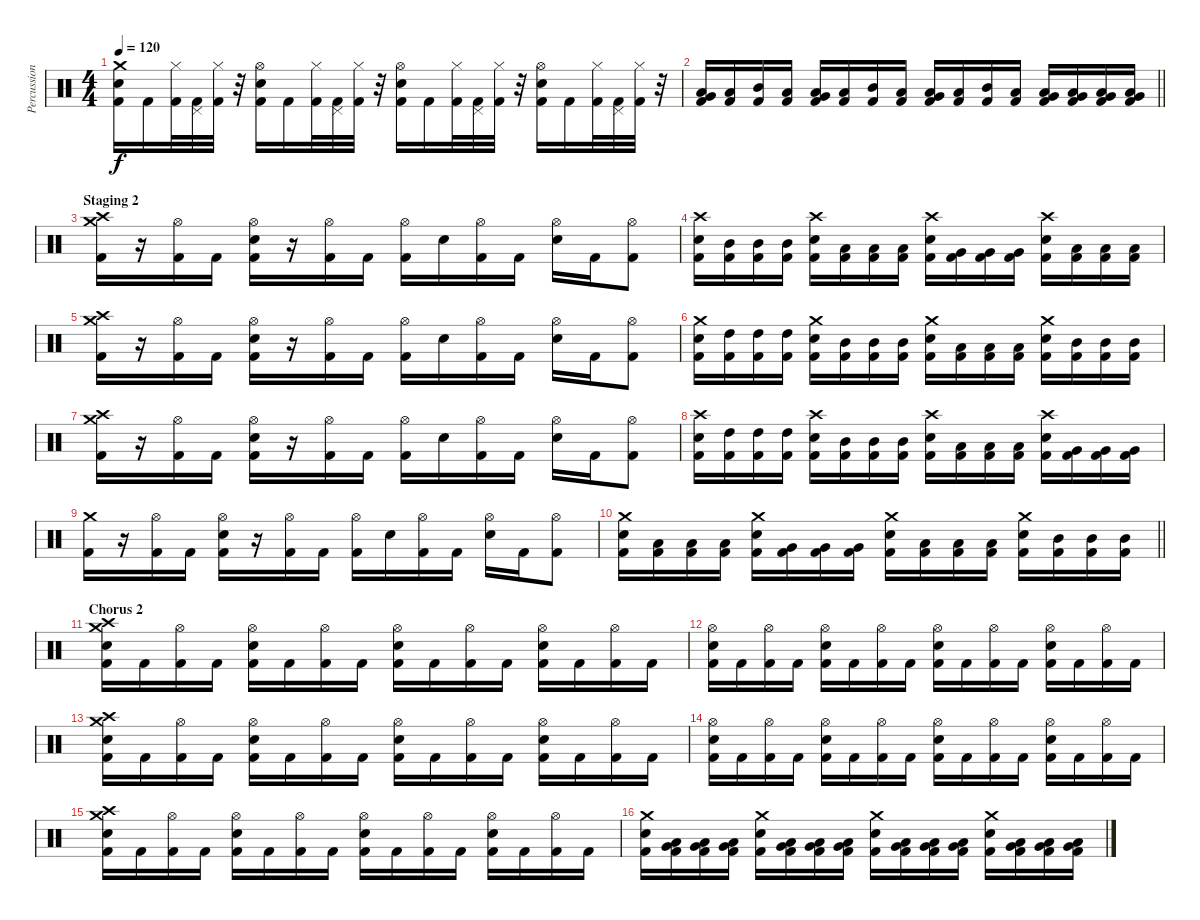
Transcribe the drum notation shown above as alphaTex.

\track ("Percussion" "Percussion") {instrument percussion}
\staff {score}
\articulation defaults
\ts (4 4)
\tempo 120
\clef neutral
\ks c
("Crash medium (hit)" "Electric Snare (hit)" "Kick (hit) 2").16{dy f} "Kick (hit) 2".16 ("Hi-Hat (closed)" "Kick (hit) 2").32 ("Pedal Hi-Hat (hit)" "Kick (hit) 2").32 ("Hi-Hat (closed)" "Kick (hit) 2").32 r.32 ("Hi-Hat (open)" "Electric Snare (hit)" "Kick (hit) 2").16 "Kick (hit) 2".16 ("Hi-Hat (closed)" "Kick (hit) 2").32 ("Pedal Hi-Hat (hit)" "Kick (hit) 2").32 ("Hi-Hat (closed)" "Kick (hit) 2").32 r.32 ("Hi-Hat (open)" "Electric Snare (hit)" "Kick (hit) 2").16 "Kick (hit) 2".16 ("Hi-Hat (closed)" "Kick (hit) 2").32 ("Pedal Hi-Hat (hit)" "Kick (hit) 2").32 ("Hi-Hat (closed)" "Kick (hit) 2").32 r.32 ("Hi-Hat (open)" "Electric Snare (hit)" "Kick (hit) 2").16 "Kick (hit) 2".16 ("Hi-Hat (closed)" "Kick (hit) 2").32 ("Pedal Hi-Hat (hit)" "Kick (hit) 2").32 ("Hi-Hat (closed)" "Kick (hit) 2").32 r.32 |
\barLineRight lightlight
("Very Low Tom (hit)" "Low Floor Tom (hit)" "Kick (hit) 2").16 ("Low Tom (hit)" "Kick (hit) 2").16 ("Mid Tom (hit)" "Kick (hit) 2").16 ("Low Tom (hit)" "Kick (hit) 2").16 ("Very Low Tom (hit)" "Low Floor Tom (hit)" "Kick (hit) 2").16 ("Low Tom (hit)" "Kick (hit) 2").16 ("Mid Tom (hit)" "Kick (hit) 2").16 ("Low Tom (hit)" "Kick (hit) 2").16 ("Very Low Tom (hit)" "Low Floor Tom (hit)" "Kick (hit) 2").16 ("Low Tom (hit)" "Kick (hit) 2").16 ("Mid Tom (hit)" "Kick (hit) 2").16 ("Low Tom (hit)" "Kick (hit) 2").16 ("Very Low Tom (hit)" "Low Floor Tom (hit)" "Kick (hit) 2").16 ("Very Low Tom (hit)" "Low Floor Tom (hit)" "Kick (hit) 2").16 ("Very Low Tom (hit)" "Low Floor Tom (hit)" "Kick (hit) 2").16 ("Very Low Tom (hit)" "Low Floor Tom (hit)" "Kick (hit) 2").16 |
\section ("" "Staging 2")
("Crash high (hit)" "Crash medium (hit)" "Kick (hit) 2").16 r.16 ("Hi-Hat (open)" "Kick (hit) 2").16 "Kick (hit) 2".16 ("Hi-Hat (open)" "Electric Snare (hit)" "Kick (hit) 2").16 r.16 ("Hi-Hat (open)" "Kick (hit) 2").16 "Kick (hit) 2".16 ("Hi-Hat (open)" "Kick (hit) 2").16 "Electric Snare (hit)".16 ("Hi-Hat (open)" "Kick (hit) 2").16 "Kick (hit) 2".16 ("Hi-Hat (open)" "Electric Snare (hit)").16 "Kick (hit) 2".16 ("Hi-Hat (open)" "Kick (hit) 2").8 |
("Crash high (hit)" "Electric Snare (hit)" "Kick (hit) 2").16 ("Mid Tom (hit)" "Kick (hit) 2").16 ("Mid Tom (hit)" "Kick (hit) 2").16 ("Mid Tom (hit)" "Kick (hit) 2").16 ("Crash high (hit)" "Electric Snare (hit)" "Kick (hit) 2").16 ("Low Tom (hit)" "Kick (hit) 2").16 ("Low Tom (hit)" "Kick (hit) 2").16 ("Low Tom (hit)" "Kick (hit) 2").16 ("Crash high (hit)" "Electric Snare (hit)" "Kick (hit) 2").16 ("Very Low Tom (hit)" "Kick (hit) 2").16 ("Very Low Tom (hit)" "Kick (hit) 2").16 ("Very Low Tom (hit)" "Kick (hit) 2").16 ("Crash high (hit)" "Electric Snare (hit)" "Kick (hit) 2").16 ("Low Tom (hit)" "Kick (hit) 2").16 ("Low Tom (hit)" "Kick (hit) 2").16 ("Low Tom (hit)" "Kick (hit) 2").16 |
("Crash medium (hit)" "Crash high (hit)" "Kick (hit) 2").16 r.16 ("Hi-Hat (open)" "Kick (hit) 2").16 "Kick (hit) 2".16 ("Hi-Hat (open)" "Electric Snare (hit)" "Kick (hit) 2").16 r.16 ("Hi-Hat (open)" "Kick (hit) 2").16 "Kick (hit) 2".16 ("Hi-Hat (open)" "Kick (hit) 2").16 "Electric Snare (hit)".16 ("Hi-Hat (open)" "Kick (hit) 2").16 "Kick (hit) 2".16 ("Hi-Hat (open)" "Electric Snare (hit)").16 "Kick (hit) 2".16 ("Hi-Hat (open)" "Kick (hit) 2").8 |
("Crash medium (hit)" "Electric Snare (hit)" "Kick (hit) 2").16 ("High Tom (hit)" "Kick (hit) 2").16 ("High Tom (hit)" "Kick (hit) 2").16 ("High Tom (hit)" "Kick (hit) 2").16 ("Crash medium (hit)" "Electric Snare (hit)" "Kick (hit) 2").16 ("Mid Tom (hit)" "Kick (hit) 2").16 ("Mid Tom (hit)" "Kick (hit) 2").16 ("Mid Tom (hit)" "Kick (hit) 2").16 ("Crash medium (hit)" "Electric Snare (hit)" "Kick (hit) 2").16 ("Low Tom (hit)" "Kick (hit) 2").16 ("Low Tom (hit)" "Kick (hit) 2").16 ("Low Tom (hit)" "Kick (hit) 2").16 ("Crash medium (hit)" "Electric Snare (hit)" "Kick (hit) 2").16 ("Mid Tom (hit)" "Kick (hit) 2").16 ("Mid Tom (hit)" "Kick (hit) 2").16 ("Mid Tom (hit)" "Kick (hit) 2").16 |
("Crash high (hit)" "Crash medium (hit)" "Kick (hit) 2").16 r.16 ("Hi-Hat (open)" "Kick (hit) 2").16 "Kick (hit) 2".16 ("Hi-Hat (open)" "Electric Snare (hit)" "Kick (hit) 2").16 r.16 ("Hi-Hat (open)" "Kick (hit) 2").16 "Kick (hit) 2".16 ("Hi-Hat (open)" "Kick (hit) 2").16 "Electric Snare (hit)".16 ("Hi-Hat (open)" "Kick (hit) 2").16 "Kick (hit) 2".16 ("Hi-Hat (open)" "Electric Snare (hit)").16 "Kick (hit) 2".16 ("Hi-Hat (open)" "Kick (hit) 2").8 |
("Crash high (hit)" "Electric Snare (hit)" "Kick (hit) 2").16 ("High Tom (hit)" "Kick (hit) 2").16 ("High Tom (hit)" "Kick (hit) 2").16 ("High Tom (hit)" "Kick (hit) 2").16 ("Crash high (hit)" "Electric Snare (hit)" "Kick (hit) 2").16 ("Mid Tom (hit)" "Kick (hit) 2").16 ("Mid Tom (hit)" "Kick (hit) 2").16 ("Mid Tom (hit)" "Kick (hit) 2").16 ("Crash high (hit)" "Electric Snare (hit)" "Kick (hit) 2").16 ("Low Tom (hit)" "Kick (hit) 2").16 ("Low Tom (hit)" "Kick (hit) 2").16 ("Low Tom (hit)" "Kick (hit) 2").16 ("Crash high (hit)" "Electric Snare (hit)" "Kick (hit) 2").16 ("Very Low Tom (hit)" "Kick (hit) 2").16 ("Very Low Tom (hit)" "Kick (hit) 2").16 ("Very Low Tom (hit)" "Kick (hit) 2").16 |
("Crash medium (hit)" "Kick (hit) 2").16 r.16 ("Hi-Hat (open)" "Kick (hit) 2").16 "Kick (hit) 2".16 ("Hi-Hat (open)" "Electric Snare (hit)" "Kick (hit) 2").16 r.16 ("Hi-Hat (open)" "Kick (hit) 2").16 "Kick (hit) 2".16 ("Hi-Hat (open)" "Kick (hit) 2").16 "Electric Snare (hit)".16 ("Hi-Hat (open)" "Kick (hit) 2").16 "Kick (hit) 2".16 ("Hi-Hat (open)" "Electric Snare (hit)").16 "Kick (hit) 2".16 ("Hi-Hat (open)" "Kick (hit) 2").8 |
\barLineRight lightlight
("Crash medium (hit)" "Electric Snare (hit)" "Kick (hit) 2").16 ("Low Floor Tom (hit)" "Kick (hit) 2").16 ("Low Floor Tom (hit)" "Kick (hit) 2").16 ("Low Floor Tom (hit)" "Kick (hit) 2").16 ("Crash medium (hit)" "Electric Snare (hit)" "Kick (hit) 2").16 ("Very Low Tom (hit)" "Kick (hit) 2").16 ("Very Low Tom (hit)" "Kick (hit) 2").16 ("Very Low Tom (hit)" "Kick (hit) 2").16 ("Crash medium (hit)" "Electric Snare (hit)" "Kick (hit) 2").16 ("Low Tom (hit)" "Kick (hit) 2").16 ("Low Tom (hit)" "Kick (hit) 2").16 ("Low Tom (hit)" "Kick (hit) 2").16 ("Crash medium (hit)" "Electric Snare (hit)" "Kick (hit) 2").16 ("Mid Tom (hit)" "Kick (hit) 2").16 ("Mid Tom (hit)" "Kick (hit) 2").16 ("Mid Tom (hit)" "Kick (hit) 2").16 |
\section ("" "Chorus 2")
("Crash medium (hit)" "Crash high (hit)" "Electric Snare (hit)" "Kick (hit) 2").16 "Kick (hit) 2".16 ("Hi-Hat (open)" "Kick (hit) 2").16 "Kick (hit) 2".16 ("Hi-Hat (open)" "Electric Snare (hit)" "Kick (hit) 2").16 "Kick (hit) 2".16 ("Hi-Hat (open)" "Kick (hit) 2").16 "Kick (hit) 2".16 ("Hi-Hat (open)" "Electric Snare (hit)" "Kick (hit) 2").16 "Kick (hit) 2".16 ("Hi-Hat (open)" "Kick (hit) 2").16 "Kick (hit) 2".16 ("Hi-Hat (open)" "Electric Snare (hit)" "Kick (hit) 2").16 "Kick (hit) 2".16 ("Hi-Hat (open)" "Kick (hit) 2").16 "Kick (hit) 2".16 |
("Hi-Hat (open)" "Electric Snare (hit)" "Kick (hit) 2").16 "Kick (hit) 2".16 ("Hi-Hat (open)" "Kick (hit) 2").16 "Kick (hit) 2".16 ("Hi-Hat (open)" "Electric Snare (hit)" "Kick (hit) 2").16 "Kick (hit) 2".16 ("Hi-Hat (open)" "Kick (hit) 2").16 "Kick (hit) 2".16 ("Hi-Hat (open)" "Electric Snare (hit)" "Kick (hit) 2").16 "Kick (hit) 2".16 ("Hi-Hat (open)" "Kick (hit) 2").16 "Kick (hit) 2".16 ("Hi-Hat (open)" "Electric Snare (hit)" "Kick (hit) 2").16 "Kick (hit) 2".16 ("Hi-Hat (open)" "Kick (hit) 2").16 "Kick (hit) 2".16 |
("Crash medium (hit)" "Crash high (hit)" "Electric Snare (hit)" "Kick (hit) 2").16 "Kick (hit) 2".16 ("Hi-Hat (open)" "Kick (hit) 2").16 "Kick (hit) 2".16 ("Hi-Hat (open)" "Electric Snare (hit)" "Kick (hit) 2").16 "Kick (hit) 2".16 ("Hi-Hat (open)" "Kick (hit) 2").16 "Kick (hit) 2".16 ("Hi-Hat (open)" "Electric Snare (hit)" "Kick (hit) 2").16 "Kick (hit) 2".16 ("Hi-Hat (open)" "Kick (hit) 2").16 "Kick (hit) 2".16 ("Hi-Hat (open)" "Electric Snare (hit)" "Kick (hit) 2").16 "Kick (hit) 2".16 ("Hi-Hat (open)" "Kick (hit) 2").16 "Kick (hit) 2".16 |
("Hi-Hat (open)" "Electric Snare (hit)" "Kick (hit) 2").16 "Kick (hit) 2".16 ("Hi-Hat (open)" "Kick (hit) 2").16 "Kick (hit) 2".16 ("Hi-Hat (open)" "Electric Snare (hit)" "Kick (hit) 2").16 "Kick (hit) 2".16 ("Hi-Hat (open)" "Kick (hit) 2").16 "Kick (hit) 2".16 ("Hi-Hat (open)" "Electric Snare (hit)" "Kick (hit) 2").16 "Kick (hit) 2".16 ("Hi-Hat (open)" "Kick (hit) 2").16 "Kick (hit) 2".16 ("Hi-Hat (open)" "Electric Snare (hit)" "Kick (hit) 2").16 "Kick (hit) 2".16 ("Hi-Hat (open)" "Kick (hit) 2").16 "Kick (hit) 2".16 |
("Crash medium (hit)" "Crash high (hit)" "Electric Snare (hit)" "Kick (hit) 2").16 "Kick (hit) 2".16 ("Hi-Hat (open)" "Kick (hit) 2").16 "Kick (hit) 2".16 ("Hi-Hat (open)" "Electric Snare (hit)" "Kick (hit) 2").16 "Kick (hit) 2".16 ("Hi-Hat (open)" "Kick (hit) 2").16 "Kick (hit) 2".16 ("Hi-Hat (open)" "Electric Snare (hit)" "Kick (hit) 2").16 "Kick (hit) 2".16 ("Hi-Hat (open)" "Kick (hit) 2").16 "Kick (hit) 2".16 ("Hi-Hat (open)" "Electric Snare (hit)" "Kick (hit) 2").16 "Kick (hit) 2".16 ("Hi-Hat (open)" "Kick (hit) 2").16 "Kick (hit) 2".16 |
("Crash medium (hit)" "Electric Snare (hit)" "Kick (hit) 2").16 ("Low Floor Tom (hit)" "Very Low Tom (hit)" "Kick (hit) 2").16 ("Low Floor Tom (hit)" "Very Low Tom (hit)" "Kick (hit) 2").16 ("Low Floor Tom (hit)" "Very Low Tom (hit)" "Kick (hit) 2").16 ("Crash medium (hit)" "Electric Snare (hit)" "Kick (hit) 2").16 ("Low Floor Tom (hit)" "Very Low Tom (hit)" "Kick (hit) 2").16 ("Low Floor Tom (hit)" "Very Low Tom (hit)" "Kick (hit) 2").16 ("Low Floor Tom (hit)" "Very Low Tom (hit)" "Kick (hit) 2").16 ("Crash medium (hit)" "Electric Snare (hit)" "Kick (hit) 2").16 ("Low Floor Tom (hit)" "Very Low Tom (hit)" "Kick (hit) 2").16 ("Low Floor Tom (hit)" "Very Low Tom (hit)" "Kick (hit) 2").16 ("Low Floor Tom (hit)" "Very Low Tom (hit)" "Kick (hit) 2").16 ("Crash medium (hit)" "Electric Snare (hit)" "Kick (hit) 2").16 ("Low Floor Tom (hit)" "Very Low Tom (hit)" "Kick (hit) 2").16 ("Low Floor Tom (hit)" "Very Low Tom (hit)" "Kick (hit) 2").16 ("Low Floor Tom (hit)" "Very Low Tom (hit)" "Kick (hit) 2").16
